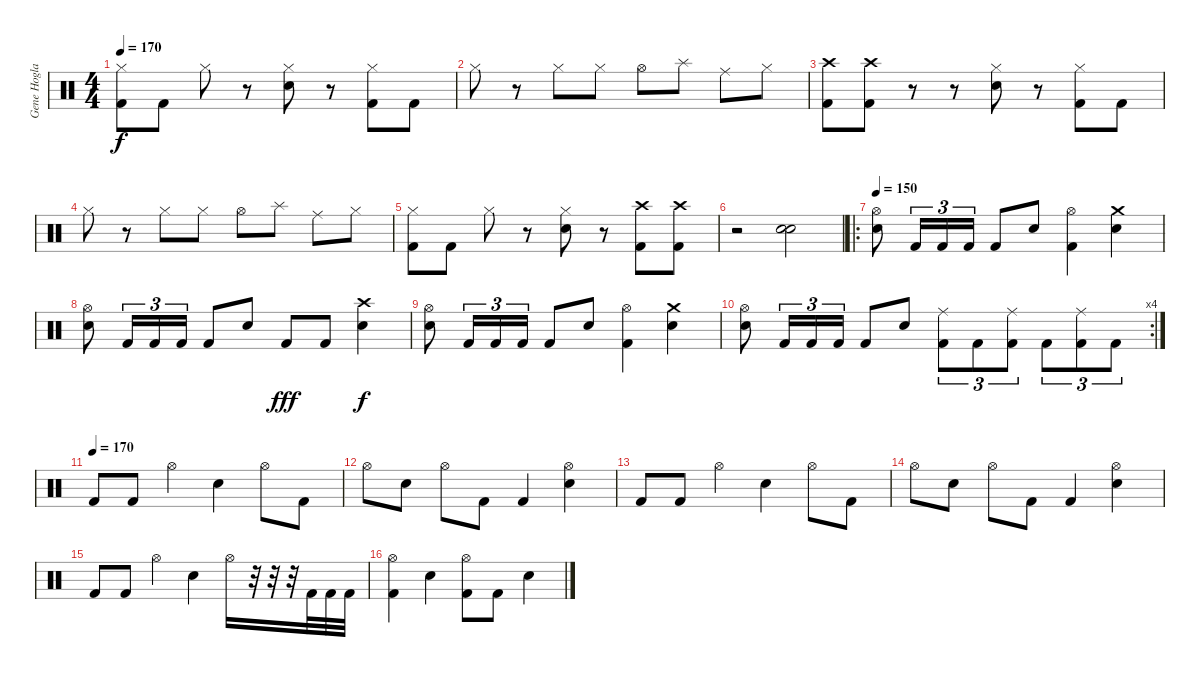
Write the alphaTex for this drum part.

\track ("Gene Hoglan" "Gene Hogla") {instrument percussion}
\staff {score}
\articulation defaults
\ts (4 4)
\tempo 170
\clef neutral
\ks c
("Hi-Hat (closed)" "Kick (hit) 2").8{dy f} "Kick (hit) 2".8 "Hi-Hat (closed)".8 r.8 ("Hi-Hat (closed)" "Snare (hit) 2").8 r.8 ("Hi-Hat (closed)" "Kick (hit) 2").8 "Kick (hit) 2".8 |
"Hi-Hat (closed)".8 r.8 "Hi-Hat (closed)".8 "Hi-Hat (closed)".8 "Hi-Hat (open)".8 "Splash (hit)".8 "Ride (middle)".8 "Hi-Hat (closed)".8 |
("Crash high (hit)" "Kick (hit) 2").8 ("Crash high (hit)" "Kick (hit) 2").8 r.8 r.8 ("Hi-Hat (closed)" "Snare (hit) 2").8 r.8 ("Hi-Hat (closed)" "Kick (hit) 2").8 "Kick (hit) 2".8 |
"Hi-Hat (closed)".8 r.8 "Hi-Hat (closed)".8 "Hi-Hat (closed)".8 "Hi-Hat (open)".8 "Splash (hit)".8 "Ride (middle)".8 "Hi-Hat (closed)".8 |
("Hi-Hat (closed)" "Kick (hit) 2").8 "Kick (hit) 2".8 "Hi-Hat (closed)".8 r.8 ("Hi-Hat (closed)" "Snare (hit) 2").8 r.8 ("Crash high (hit)" "Kick (hit) 2").8 ("Crash high (hit)" "Kick (hit) 2").8 |
r.2 ("Snare (hit) 2" "Snare (hit) 2").2 |
\ro
\tempo 150
("Hi-Hat (open)" "Snare (hit) 2").8 "Kick (hit) 2".16{tu (3 2)} "Kick (hit) 2".16{tu (3 2)} "Kick (hit) 2".16{tu (3 2)} "Kick (hit) 2".8 "Snare (hit) 2".8 ("Hi-Hat (open)" "Kick (hit) 2").4 ("Crash medium (hit)" "Snare (hit) 2").4 |
("Hi-Hat (open)" "Snare (hit) 2").8 "Kick (hit) 2".16{tu (3 2)} "Kick (hit) 2".16{tu (3 2)} "Kick (hit) 2".16{tu (3 2)} "Kick (hit) 2".8 "Snare (hit) 2".8 "Kick (hit) 2".8{dy fff} "Kick (hit) 2".8 ("Crash high (hit)" "Snare (hit) 2").4{dy f} |
("Hi-Hat (open)" "Snare (hit) 2").8 "Kick (hit) 2".16{tu (3 2)} "Kick (hit) 2".16{tu (3 2)} "Kick (hit) 2".16{tu (3 2)} "Kick (hit) 2".8 "Snare (hit) 2".8 ("Hi-Hat (open)" "Kick (hit) 2").4 ("Crash medium (hit)" "Snare (hit) 2").4 |
\rc 4
("Hi-Hat (open)" "Snare (hit) 2").8 "Kick (hit) 2".16{tu (3 2)} "Kick (hit) 2".16{tu (3 2)} "Kick (hit) 2".16{tu (3 2)} "Kick (hit) 2".8 "Snare (hit) 2".8 ("Ride (middle)" "Kick (hit) 2").8{tu (3 2)} "Kick (hit) 2".8{tu (3 2)} ("Ride (middle)" "Kick (hit) 2").8{tu (3 2)} "Kick (hit) 2".8{tu (3 2)} ("Ride (middle)" "Kick (hit) 2").8{tu (3 2)} "Kick (hit) 2".8{tu (3 2)} |
\tempo (170)
"Kick (hit) 2".8 "Kick (hit) 2".8 "Hi-Hat (open)".4 "Snare (hit) 2".4 "Hi-Hat (open)".8 "Kick (hit) 2".8 |
"Hi-Hat (open)".8 "Snare (hit) 2".8 "Hi-Hat (open)".8 "Kick (hit) 2".8 "Kick (hit) 2".4 ("Hi-Hat (open)" "Snare (hit) 2").4 |
"Kick (hit) 2".8 "Kick (hit) 2".8 "Hi-Hat (open)".4 "Snare (hit) 2".4 "Hi-Hat (open)".8 "Kick (hit) 2".8 |
"Hi-Hat (open)".8 "Snare (hit) 2".8 "Hi-Hat (open)".8 "Kick (hit) 2".8 "Kick (hit) 2".4 ("Hi-Hat (open)" "Snare (hit) 2").4 |
"Kick (hit) 2".8 "Kick (hit) 2".8 "Hi-Hat (open)".4 "Snare (hit) 2".4 "Hi-Hat (open)".16 r.32 r.32 r.32 "Kick (hit) 2".32 "Kick (hit) 2".32 "Kick (hit) 2".32 |
("Hi-Hat (open)" "Kick (hit) 2").4 "Snare (hit) 2".4 ("Hi-Hat (open)" "Kick (hit) 2").8 "Kick (hit) 2".8 "Snare (hit) 2".4
